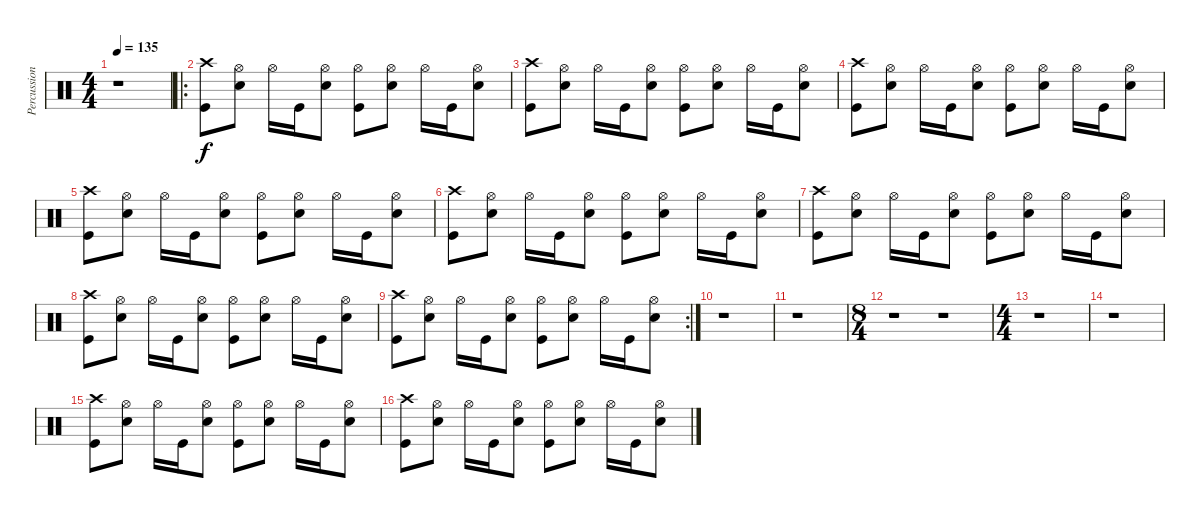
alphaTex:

\track ("Percussion" "Percussion") {instrument percussion}
\staff {score}
\articulation defaults
\ts (4 4)
\tempo 135
\clef neutral
\ks c
r.1{dy f} |
\ro
("Crash high (hit)" "Kick (hit)").8 ("Hi-Hat (open)" "Snare (hit) 2").8 "Hi-Hat (open)".16 "Kick (hit)".16 ("Hi-Hat (open)" "Snare (hit) 2").8 ("Hi-Hat (open)" "Kick (hit)").8 ("Hi-Hat (open)" "Snare (hit) 2").8 "Hi-Hat (open)".16 "Kick (hit)".16 ("Hi-Hat (open)" "Snare (hit) 2").8 |
("Crash high (hit)" "Kick (hit)").8 ("Hi-Hat (open)" "Snare (hit) 2").8 "Hi-Hat (open)".16 "Kick (hit)".16 ("Hi-Hat (open)" "Snare (hit) 2").8 ("Hi-Hat (open)" "Kick (hit)").8 ("Hi-Hat (open)" "Snare (hit) 2").8 "Hi-Hat (open)".16 "Kick (hit)".16 ("Hi-Hat (open)" "Snare (hit) 2").8 |
("Crash high (hit)" "Kick (hit)").8 ("Hi-Hat (open)" "Snare (hit) 2").8 "Hi-Hat (open)".16 "Kick (hit)".16 ("Hi-Hat (open)" "Snare (hit) 2").8 ("Hi-Hat (open)" "Kick (hit)").8 ("Hi-Hat (open)" "Snare (hit) 2").8 "Hi-Hat (open)".16 "Kick (hit)".16 ("Hi-Hat (open)" "Snare (hit) 2").8 |
("Crash high (hit)" "Kick (hit)").8 ("Hi-Hat (open)" "Snare (hit) 2").8 "Hi-Hat (open)".16 "Kick (hit)".16 ("Hi-Hat (open)" "Snare (hit) 2").8 ("Hi-Hat (open)" "Kick (hit)").8 ("Hi-Hat (open)" "Snare (hit) 2").8 "Hi-Hat (open)".16 "Kick (hit)".16 ("Hi-Hat (open)" "Snare (hit) 2").8 |
("Crash high (hit)" "Kick (hit)").8 ("Hi-Hat (open)" "Snare (hit) 2").8 "Hi-Hat (open)".16 "Kick (hit)".16 ("Hi-Hat (open)" "Snare (hit) 2").8 ("Hi-Hat (open)" "Kick (hit)").8 ("Hi-Hat (open)" "Snare (hit) 2").8 "Hi-Hat (open)".16 "Kick (hit)".16 ("Hi-Hat (open)" "Snare (hit) 2").8 |
("Crash high (hit)" "Kick (hit)").8 ("Hi-Hat (open)" "Snare (hit) 2").8 "Hi-Hat (open)".16 "Kick (hit)".16 ("Hi-Hat (open)" "Snare (hit) 2").8 ("Hi-Hat (open)" "Kick (hit)").8 ("Hi-Hat (open)" "Snare (hit) 2").8 "Hi-Hat (open)".16 "Kick (hit)".16 ("Hi-Hat (open)" "Snare (hit) 2").8 |
("Crash high (hit)" "Kick (hit)").8 ("Hi-Hat (open)" "Snare (hit) 2").8 "Hi-Hat (open)".16 "Kick (hit)".16 ("Hi-Hat (open)" "Snare (hit) 2").8 ("Hi-Hat (open)" "Kick (hit)").8 ("Hi-Hat (open)" "Snare (hit) 2").8 "Hi-Hat (open)".16 "Kick (hit)".16 ("Hi-Hat (open)" "Snare (hit) 2").8 |
\rc 2
("Crash high (hit)" "Kick (hit)").8 ("Hi-Hat (open)" "Snare (hit) 2").8 "Hi-Hat (open)".16 "Kick (hit)".16 ("Hi-Hat (open)" "Snare (hit) 2").8 ("Hi-Hat (open)" "Kick (hit)").8 ("Hi-Hat (open)" "Snare (hit) 2").8 "Hi-Hat (open)".16 "Kick (hit)".16 ("Hi-Hat (open)" "Snare (hit) 2").8 |
r.1 |
r.1 |
\ts (8 4)
r.1 r.1 |
\ts (4 4)
r.1 |
r.1 |
("Crash high (hit)" "Kick (hit)").8 ("Hi-Hat (open)" "Snare (hit) 2").8 "Hi-Hat (open)".16 "Kick (hit)".16 ("Hi-Hat (open)" "Snare (hit) 2").8 ("Hi-Hat (open)" "Kick (hit)").8 ("Hi-Hat (open)" "Snare (hit) 2").8 "Hi-Hat (open)".16 "Kick (hit)".16 ("Hi-Hat (open)" "Snare (hit) 2").8 |
("Crash high (hit)" "Kick (hit)").8 ("Hi-Hat (open)" "Snare (hit) 2").8 "Hi-Hat (open)".16 "Kick (hit)".16 ("Hi-Hat (open)" "Snare (hit) 2").8 ("Hi-Hat (open)" "Kick (hit)").8 ("Hi-Hat (open)" "Snare (hit) 2").8 "Hi-Hat (open)".16 "Kick (hit)".16 ("Hi-Hat (open)" "Snare (hit) 2").8
